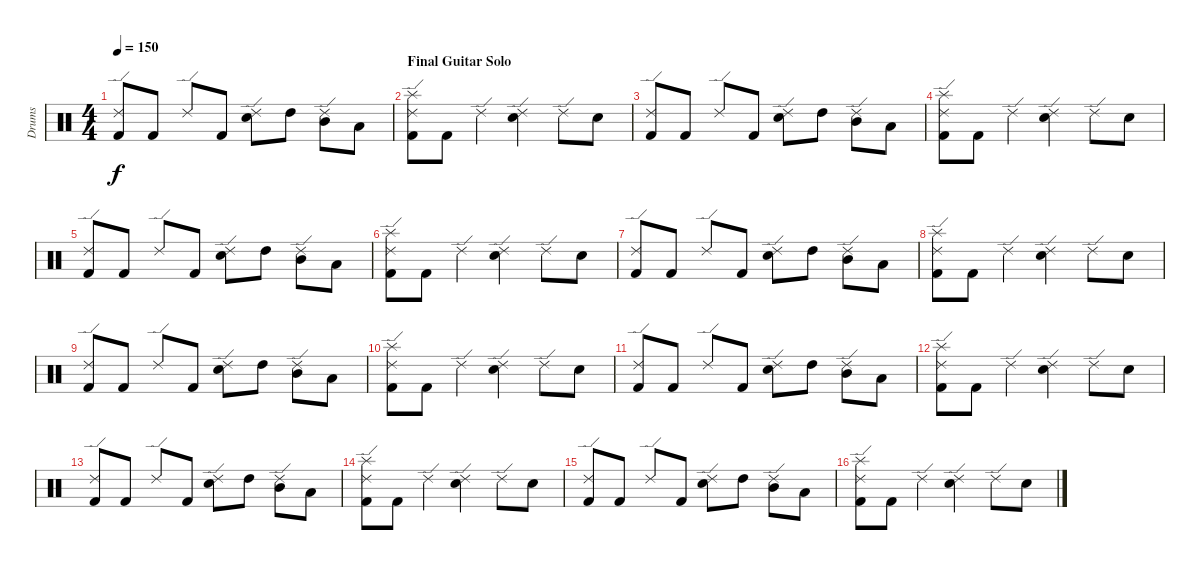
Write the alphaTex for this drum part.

\track ("Drums" "Drums") {instrument percussion}
\staff {score}
\articulation defaults
\ts (4 4)
\tempo 150
\clef neutral
\ks c
("Ride (edge) 2" "Kick (hit) 2").8{dy f} "Kick (hit) 2".8 "Ride (edge) 2".8 "Kick (hit) 2".8 ("Ride (edge) 2" "Electric Snare (hit)").8 "High Tom (hit)".8 ("Ride (edge) 2" "Mid Tom (hit)").8 "Low Tom (hit)".8 |
\section ("" "Final Guitar Solo")
("Splash (hit)" "Ride (edge) 2" "Kick (hit) 2").8 "Kick (hit) 2".8 "Ride (edge) 2".4 ("Ride (edge) 2" "Electric Snare (hit)").4 "Ride (edge) 2".8 "Electric Snare (hit)".8 |
("Ride (edge) 2" "Kick (hit) 2").8 "Kick (hit) 2".8 "Ride (edge) 2".8 "Kick (hit) 2".8 ("Ride (edge) 2" "Electric Snare (hit)").8 "High Tom (hit)".8 ("Ride (edge) 2" "Mid Tom (hit)").8 "Low Tom (hit)".8 |
("Splash (hit)" "Ride (edge) 2" "Kick (hit) 2").8 "Kick (hit) 2".8 "Ride (edge) 2".4 ("Ride (edge) 2" "Electric Snare (hit)").4 "Ride (edge) 2".8 "Electric Snare (hit)".8 |
("Ride (edge) 2" "Kick (hit) 2").8 "Kick (hit) 2".8 "Ride (edge) 2".8 "Kick (hit) 2".8 ("Ride (edge) 2" "Electric Snare (hit)").8 "High Tom (hit)".8 ("Ride (edge) 2" "Mid Tom (hit)").8 "Low Tom (hit)".8 |
("Splash (hit)" "Ride (edge) 2" "Kick (hit) 2").8 "Kick (hit) 2".8 "Ride (edge) 2".4 ("Ride (edge) 2" "Electric Snare (hit)").4 "Ride (edge) 2".8 "Electric Snare (hit)".8 |
("Ride (edge) 2" "Kick (hit) 2").8 "Kick (hit) 2".8 "Ride (edge) 2".8 "Kick (hit) 2".8 ("Ride (edge) 2" "Electric Snare (hit)").8 "High Tom (hit)".8 ("Ride (edge) 2" "Mid Tom (hit)").8 "Low Tom (hit)".8 |
("Splash (hit)" "Ride (edge) 2" "Kick (hit) 2").8 "Kick (hit) 2".8 "Ride (edge) 2".4 ("Ride (edge) 2" "Electric Snare (hit)").4 "Ride (edge) 2".8 "Electric Snare (hit)".8 |
("Ride (edge) 2" "Kick (hit) 2").8 "Kick (hit) 2".8 "Ride (edge) 2".8 "Kick (hit) 2".8 ("Ride (edge) 2" "Electric Snare (hit)").8 "High Tom (hit)".8 ("Ride (edge) 2" "Mid Tom (hit)").8 "Low Tom (hit)".8 |
("Splash (hit)" "Ride (edge) 2" "Kick (hit) 2").8 "Kick (hit) 2".8 "Ride (edge) 2".4 ("Ride (edge) 2" "Electric Snare (hit)").4 "Ride (edge) 2".8 "Electric Snare (hit)".8 |
("Ride (edge) 2" "Kick (hit) 2").8 "Kick (hit) 2".8 "Ride (edge) 2".8 "Kick (hit) 2".8 ("Ride (edge) 2" "Electric Snare (hit)").8 "High Tom (hit)".8 ("Ride (edge) 2" "Mid Tom (hit)").8 "Low Tom (hit)".8 |
("Splash (hit)" "Ride (edge) 2" "Kick (hit) 2").8 "Kick (hit) 2".8 "Ride (edge) 2".4 ("Ride (edge) 2" "Electric Snare (hit)").4 "Ride (edge) 2".8 "Electric Snare (hit)".8 |
("Ride (edge) 2" "Kick (hit) 2").8 "Kick (hit) 2".8 "Ride (edge) 2".8 "Kick (hit) 2".8 ("Ride (edge) 2" "Electric Snare (hit)").8 "High Tom (hit)".8 ("Ride (edge) 2" "Mid Tom (hit)").8 "Low Tom (hit)".8 |
("Splash (hit)" "Ride (edge) 2" "Kick (hit) 2").8 "Kick (hit) 2".8 "Ride (edge) 2".4 ("Ride (edge) 2" "Electric Snare (hit)").4 "Ride (edge) 2".8 "Electric Snare (hit)".8 |
("Ride (edge) 2" "Kick (hit) 2").8 "Kick (hit) 2".8 "Ride (edge) 2".8 "Kick (hit) 2".8 ("Ride (edge) 2" "Electric Snare (hit)").8 "High Tom (hit)".8 ("Ride (edge) 2" "Mid Tom (hit)").8 "Low Tom (hit)".8 |
("Splash (hit)" "Ride (edge) 2" "Kick (hit) 2").8 "Kick (hit) 2".8 "Ride (edge) 2".4 ("Ride (edge) 2" "Electric Snare (hit)").4 "Ride (edge) 2".8 "Electric Snare (hit)".8
